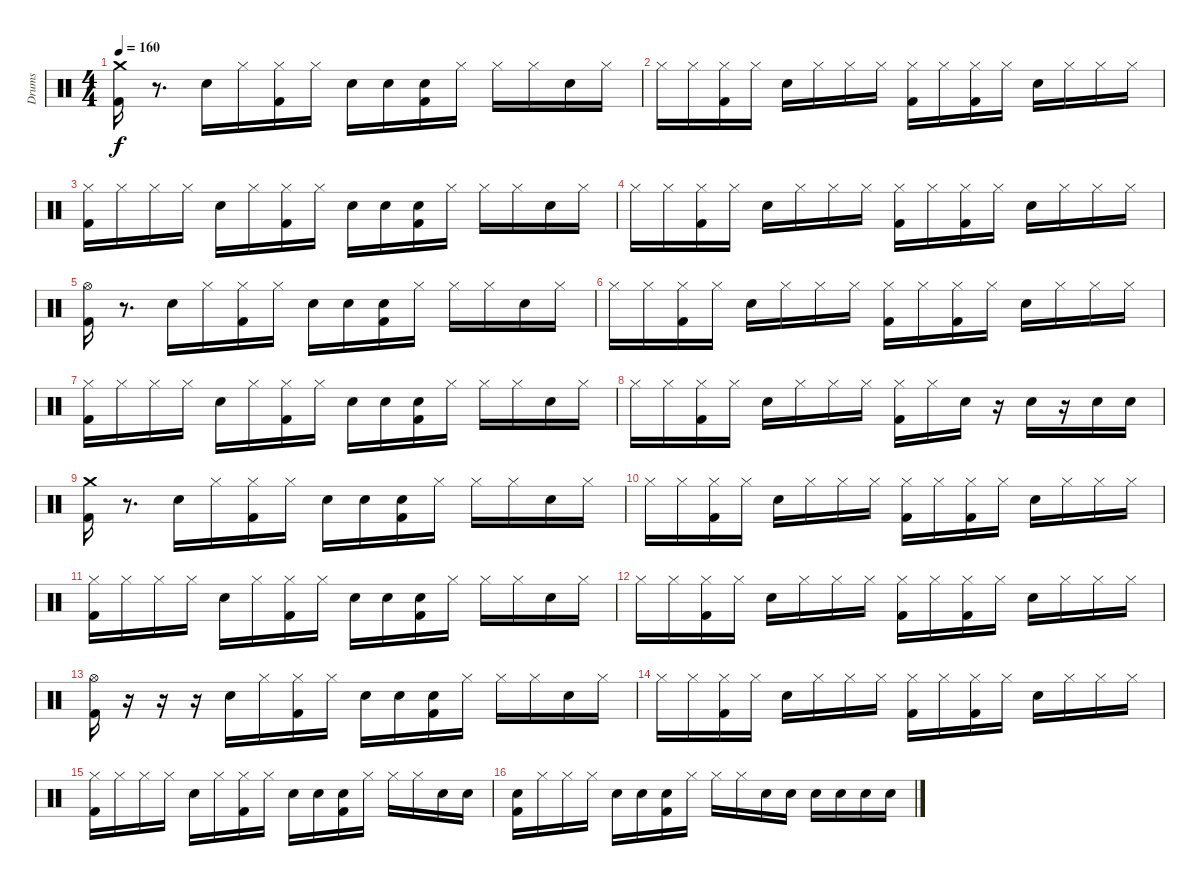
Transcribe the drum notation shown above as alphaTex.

\track ("Drums" "Drums") {instrument percussion}
\staff {score}
\articulation defaults
\ts (4 4)
\tempo 160
\clef neutral
\ks c
("Crash medium (hit)" "Kick (hit) 2").16{dy f} r.8{d} "Electric Snare (hit)".16 "Hi-Hat (closed)".16 ("Hi-Hat (closed)" "Kick (hit) 2").16 "Hi-Hat (closed)".16 "Electric Snare (hit)".16 "Electric Snare (hit)".16 ("Electric Snare (hit)" "Kick (hit) 2").16 "Hi-Hat (closed)".16 "Hi-Hat (closed)".16 "Hi-Hat (closed)".16 "Electric Snare (hit)".16 "Hi-Hat (closed)".16 |
"Hi-Hat (closed)".16 "Hi-Hat (closed)".16 ("Hi-Hat (closed)" "Kick (hit) 2").16 "Hi-Hat (closed)".16 "Electric Snare (hit)".16 "Hi-Hat (closed)".16 "Hi-Hat (closed)".16 "Hi-Hat (closed)".16 ("Hi-Hat (closed)" "Kick (hit) 2").16 "Hi-Hat (closed)".16 ("Hi-Hat (closed)" "Kick (hit) 2").16 "Hi-Hat (closed)".16 "Electric Snare (hit)".16 "Hi-Hat (closed)".16 "Hi-Hat (closed)".16 "Hi-Hat (closed)".16 |
("Hi-Hat (closed)" "Kick (hit) 2").16 "Hi-Hat (closed)".16 "Hi-Hat (closed)".16 "Hi-Hat (closed)".16 "Electric Snare (hit)".16 "Hi-Hat (closed)".16 ("Hi-Hat (closed)" "Kick (hit) 2").16 "Hi-Hat (closed)".16 "Electric Snare (hit)".16 "Electric Snare (hit)".16 ("Electric Snare (hit)" "Kick (hit) 2").16 "Hi-Hat (closed)".16 "Hi-Hat (closed)".16 "Hi-Hat (closed)".16 "Electric Snare (hit)".16 "Hi-Hat (closed)".16 |
"Hi-Hat (closed)".16 "Hi-Hat (closed)".16 ("Hi-Hat (closed)" "Kick (hit) 2").16 "Hi-Hat (closed)".16 "Electric Snare (hit)".16 "Hi-Hat (closed)".16 "Hi-Hat (closed)".16 "Hi-Hat (closed)".16 ("Hi-Hat (closed)" "Kick (hit) 2").16 "Hi-Hat (closed)".16 ("Hi-Hat (closed)" "Kick (hit) 2").16 "Hi-Hat (closed)".16 "Electric Snare (hit)".16 "Hi-Hat (closed)".16 "Hi-Hat (closed)".16 "Hi-Hat (closed)".16 |
("Hi-Hat (open)" "Kick (hit) 2").16 r.8{d} "Electric Snare (hit)".16 "Hi-Hat (closed)".16 ("Hi-Hat (closed)" "Kick (hit) 2").16 "Hi-Hat (closed)".16 "Electric Snare (hit)".16 "Electric Snare (hit)".16 ("Electric Snare (hit)" "Kick (hit) 2").16 "Hi-Hat (closed)".16 "Hi-Hat (closed)".16 "Hi-Hat (closed)".16 "Electric Snare (hit)".16 "Hi-Hat (closed)".16 |
"Hi-Hat (closed)".16 "Hi-Hat (closed)".16 ("Hi-Hat (closed)" "Kick (hit) 2").16 "Hi-Hat (closed)".16 "Electric Snare (hit)".16 "Hi-Hat (closed)".16 "Hi-Hat (closed)".16 "Hi-Hat (closed)".16 ("Hi-Hat (closed)" "Kick (hit) 2").16 "Hi-Hat (closed)".16 ("Hi-Hat (closed)" "Kick (hit) 2").16 "Hi-Hat (closed)".16 "Electric Snare (hit)".16 "Hi-Hat (closed)".16 "Hi-Hat (closed)".16 "Hi-Hat (closed)".16 |
("Hi-Hat (closed)" "Kick (hit) 2").16 "Hi-Hat (closed)".16 "Hi-Hat (closed)".16 "Hi-Hat (closed)".16 "Electric Snare (hit)".16 "Hi-Hat (closed)".16 ("Hi-Hat (closed)" "Kick (hit) 2").16 "Hi-Hat (closed)".16 "Electric Snare (hit)".16 "Electric Snare (hit)".16 ("Electric Snare (hit)" "Kick (hit) 2").16 "Hi-Hat (closed)".16 "Hi-Hat (closed)".16 "Hi-Hat (closed)".16 "Electric Snare (hit)".16 "Hi-Hat (closed)".16 |
"Hi-Hat (closed)".16 "Hi-Hat (closed)".16 ("Hi-Hat (closed)" "Kick (hit) 2").16 "Hi-Hat (closed)".16 "Electric Snare (hit)".16 "Hi-Hat (closed)".16 "Hi-Hat (closed)".16 "Hi-Hat (closed)".16 ("Hi-Hat (closed)" "Kick (hit) 2").16 "Hi-Hat (closed)".16 "Electric Snare (hit)".16 r.16 "Electric Snare (hit)".16 r.16 "Electric Snare (hit)".16 "Electric Snare (hit)".16 |
("Crash medium (hit)" "Kick (hit) 2").16 r.8{d} "Electric Snare (hit)".16 "Hi-Hat (closed)".16 ("Hi-Hat (closed)" "Kick (hit) 2").16 "Hi-Hat (closed)".16 "Electric Snare (hit)".16 "Electric Snare (hit)".16 ("Electric Snare (hit)" "Kick (hit) 2").16 "Hi-Hat (closed)".16 "Hi-Hat (closed)".16 "Hi-Hat (closed)".16 "Electric Snare (hit)".16 "Hi-Hat (closed)".16 |
"Hi-Hat (closed)".16 "Hi-Hat (closed)".16 ("Hi-Hat (closed)" "Kick (hit) 2").16 "Hi-Hat (closed)".16 "Electric Snare (hit)".16 "Hi-Hat (closed)".16 "Hi-Hat (closed)".16 "Hi-Hat (closed)".16 ("Hi-Hat (closed)" "Kick (hit) 2").16 "Hi-Hat (closed)".16 ("Hi-Hat (closed)" "Kick (hit) 2").16 "Hi-Hat (closed)".16 "Electric Snare (hit)".16 "Hi-Hat (closed)".16 "Hi-Hat (closed)".16 "Hi-Hat (closed)".16 |
("Hi-Hat (closed)" "Kick (hit) 2").16 "Hi-Hat (closed)".16 "Hi-Hat (closed)".16 "Hi-Hat (closed)".16 "Electric Snare (hit)".16 "Hi-Hat (closed)".16 ("Hi-Hat (closed)" "Kick (hit) 2").16 "Hi-Hat (closed)".16 "Electric Snare (hit)".16 "Electric Snare (hit)".16 ("Electric Snare (hit)" "Kick (hit) 2").16 "Hi-Hat (closed)".16 "Hi-Hat (closed)".16 "Hi-Hat (closed)".16 "Electric Snare (hit)".16 "Hi-Hat (closed)".16 |
"Hi-Hat (closed)".16 "Hi-Hat (closed)".16 ("Hi-Hat (closed)" "Kick (hit) 2").16 "Hi-Hat (closed)".16 "Electric Snare (hit)".16 "Hi-Hat (closed)".16 "Hi-Hat (closed)".16 "Hi-Hat (closed)".16 ("Hi-Hat (closed)" "Kick (hit) 2").16 "Hi-Hat (closed)".16 ("Hi-Hat (closed)" "Kick (hit) 2").16 "Hi-Hat (closed)".16 "Electric Snare (hit)".16 "Hi-Hat (closed)".16 "Hi-Hat (closed)".16 "Hi-Hat (closed)".16 |
("Hi-Hat (open)" "Kick (hit) 2").16 r.16 r.16 r.16 "Electric Snare (hit)".16 "Hi-Hat (closed)".16 ("Hi-Hat (closed)" "Kick (hit) 2").16 "Hi-Hat (closed)".16 "Electric Snare (hit)".16 "Electric Snare (hit)".16 ("Electric Snare (hit)" "Kick (hit) 2").16 "Hi-Hat (closed)".16 "Hi-Hat (closed)".16 "Hi-Hat (closed)".16 "Electric Snare (hit)".16 "Hi-Hat (closed)".16 |
"Hi-Hat (closed)".16 "Hi-Hat (closed)".16 ("Hi-Hat (closed)" "Kick (hit) 2").16 "Hi-Hat (closed)".16 "Electric Snare (hit)".16 "Hi-Hat (closed)".16 "Hi-Hat (closed)".16 "Hi-Hat (closed)".16 ("Hi-Hat (closed)" "Kick (hit) 2").16 "Hi-Hat (closed)".16 ("Hi-Hat (closed)" "Kick (hit) 2").16 "Hi-Hat (closed)".16 "Electric Snare (hit)".16 "Hi-Hat (closed)".16 "Hi-Hat (closed)".16 "Hi-Hat (closed)".16 |
("Hi-Hat (closed)" "Kick (hit) 2").16 "Hi-Hat (closed)".16 "Hi-Hat (closed)".16 "Hi-Hat (closed)".16 "Electric Snare (hit)".16 "Hi-Hat (closed)".16 ("Hi-Hat (closed)" "Kick (hit) 2").16 "Hi-Hat (closed)".16 "Electric Snare (hit)".16 "Electric Snare (hit)".16 ("Electric Snare (hit)" "Kick (hit) 2").16 "Hi-Hat (closed)".16 "Hi-Hat (closed)".16 "Hi-Hat (closed)".16 "Electric Snare (hit)".16 "Electric Snare (hit)".16 |
("Electric Snare (hit)" "Kick (hit) 2").16 "Hi-Hat (closed)".16 "Hi-Hat (closed)".16 "Hi-Hat (closed)".16 "Electric Snare (hit)".16 "Electric Snare (hit)".16 ("Electric Snare (hit)" "Kick (hit) 2").16 "Hi-Hat (closed)".16 "Hi-Hat (closed)".16 "Hi-Hat (closed)".16 "Electric Snare (hit)".16 "Electric Snare (hit)".16 "Electric Snare (hit)".16 "Electric Snare (hit)".16 "Electric Snare (hit)".16 "Electric Snare (hit)".16
